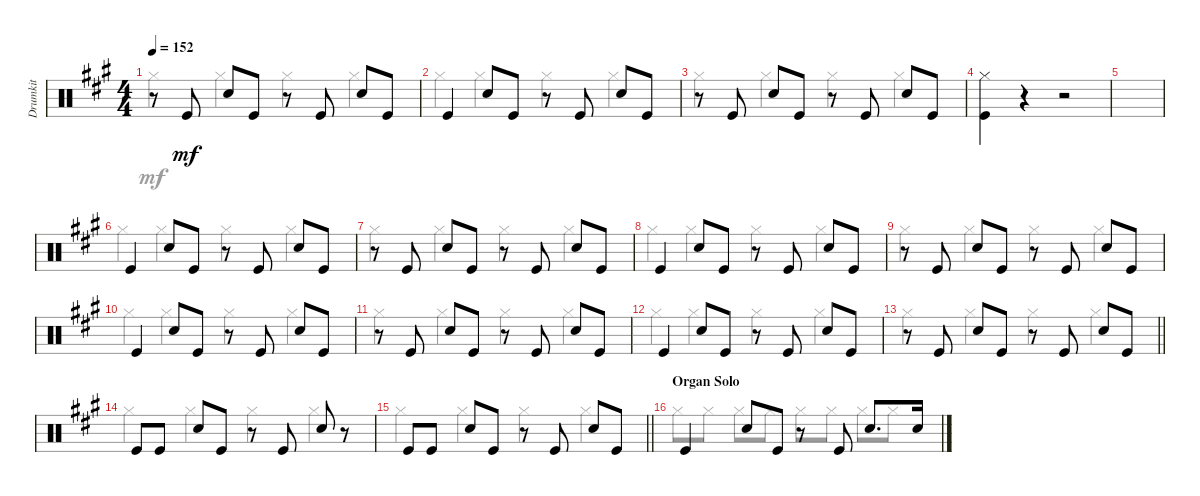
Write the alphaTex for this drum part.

\track ("Drumkit" "Drumkit") {instrument percussion}
\staff {score}
\articulation defaults
\voice
\ts (4 4)
\tempo 152
\clef neutral
\ks a
r.8{dy mf} "Kick (hit)".8 "Snare (hit) 2".8 "Kick (hit)".8 r.8 "Kick (hit)".8 "Snare (hit) 2".8 "Kick (hit)".8 |
"Kick (hit)".4 "Snare (hit) 2".8 "Kick (hit)".8 r.8 "Kick (hit)".8 "Snare (hit) 2".8 "Kick (hit)".8 |
r.8 "Kick (hit)".8 "Snare (hit) 2".8 "Kick (hit)".8 r.8 "Kick (hit)".8 "Snare (hit) 2".8 "Kick (hit)".8 |
("Kick (hit)" "Hi-Hat (closed)").4 r.4 r.2 |
|
"Kick (hit)".4 "Snare (hit) 2".8 "Kick (hit)".8 r.8 "Kick (hit)".8 "Snare (hit) 2".8 "Kick (hit)".8 |
r.8 "Kick (hit)".8 "Snare (hit) 2".8 "Kick (hit)".8 r.8 "Kick (hit)".8 "Snare (hit) 2".8 "Kick (hit)".8 |
"Kick (hit)".4 "Snare (hit) 2".8 "Kick (hit)".8 r.8 "Kick (hit)".8 "Snare (hit) 2".8 "Kick (hit)".8 |
r.8 "Kick (hit)".8 "Snare (hit) 2".8 "Kick (hit)".8 r.8 "Kick (hit)".8 "Snare (hit) 2".8 "Kick (hit)".8 |
"Kick (hit)".4 "Snare (hit) 2".8 "Kick (hit)".8 r.8 "Kick (hit)".8 "Snare (hit) 2".8 "Kick (hit)".8 |
r.8 "Kick (hit)".8 "Snare (hit) 2".8 "Kick (hit)".8 r.8 "Kick (hit)".8 "Snare (hit) 2".8 "Kick (hit)".8 |
"Kick (hit)".4 "Snare (hit) 2".8 "Kick (hit)".8 r.8 "Kick (hit)".8 "Snare (hit) 2".8 "Kick (hit)".8 |
\barLineRight lightlight
r.8 "Kick (hit)".8 "Snare (hit) 2".8 "Kick (hit)".8 r.8 "Kick (hit)".8 "Snare (hit) 2".8 "Kick (hit)".8 |
"Kick (hit)".8 "Kick (hit)".8 "Snare (hit) 2".8 "Kick (hit)".8 r.8 "Kick (hit)".8 "Snare (hit) 2".8 r.8 |
\barLineRight lightlight "Kick (hit)".8 "Kick (hit)".8 "Snare (hit) 2".8 "Kick (hit)".8
r.8 "Kick (hit)".8 "Snare (hit) 2".8 "Kick (hit)".8 |
\section ("" "Organ Solo")
"Kick (hit)".4 "Snare (hit) 2".8 "Kick (hit)".8 r.8 "Kick (hit)".8 "Snare (hit) 2".8{d} "Snare (hit) 2".16
\voice
\clef neutral
\ottava regular
\simile none
\ks a "Hi-Hat (closed)".4{dy mf} "Hi-Hat (closed)".4 "Hi-Hat (closed)".4 "Hi-Hat (closed)".4
|
"Hi-Hat (closed)".4 "Hi-Hat (closed)".4 "Hi-Hat (closed)".4 "Hi-Hat (closed)".4 |
"Hi-Hat (closed)".4 "Hi-Hat (closed)".4 "Hi-Hat (closed)".4 "Hi-Hat (closed)".4 |
|
|
"Hi-Hat (closed)".4 "Hi-Hat (closed)".4 "Hi-Hat (closed)".4 "Hi-Hat (closed)".4 |
"Hi-Hat (closed)".4 "Hi-Hat (closed)".4 "Hi-Hat (closed)".4 "Hi-Hat (closed)".4 |
"Hi-Hat (closed)".4 "Hi-Hat (closed)".4 "Hi-Hat (closed)".4 "Hi-Hat (closed)".4 |
"Hi-Hat (closed)".4 "Hi-Hat (closed)".4 "Hi-Hat (closed)".4 "Hi-Hat (closed)".4 |
"Hi-Hat (closed)".4 "Hi-Hat (closed)".4 "Hi-Hat (closed)".4 "Hi-Hat (closed)".4 |
"Hi-Hat (closed)".4 "Hi-Hat (closed)".4 "Hi-Hat (closed)".4 "Hi-Hat (closed)".4 |
"Hi-Hat (closed)".4 "Hi-Hat (closed)".4 "Hi-Hat (closed)".4 "Hi-Hat (closed)".4 |
\barLineRight lightlight "Hi-Hat (closed)".4 "Hi-Hat (closed)".4 "Hi-Hat (closed)".4 "Hi-Hat (closed)".4
|
"Hi-Hat (closed)".4 "Hi-Hat (closed)".4 "Hi-Hat (closed)".4 "Hi-Hat (closed)".4 |
\barLineRight lightlight "Hi-Hat (closed)".4 "Hi-Hat (closed)".4 "Hi-Hat (closed)".4 "Hi-Hat (closed)".4
|
"Hi-Hat (closed)".8 "Hi-Hat (closed)".8 "Hi-Hat (closed)".8 "Hi-Hat (closed)".8 "Hi-Hat (closed)".8 "Hi-Hat (closed)".8 "Hi-Hat (closed)".8 "Hi-Hat (closed)".8
